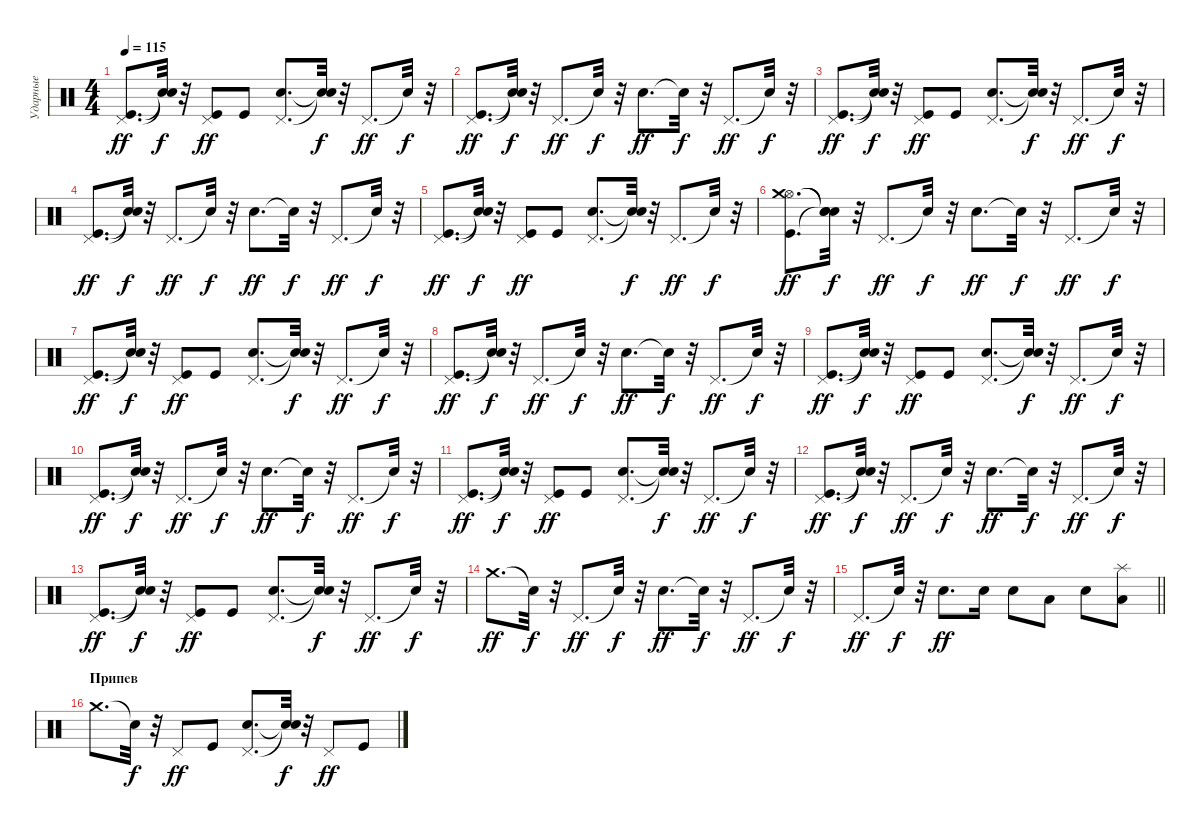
\track ("Ударные" "Ударные") {instrument percussion}
\staff {score}
\articulation defaults
\ts (4 4)
\tempo 115
\clef neutral
\ks c
("Kick (hit)" "Pedal Hi-Hat (hit)").8{d dy ff} ("Snare (hit)"{t} "Snare (hit)"{t}).32{dy f} r.32 ("Kick (hit)" "Pedal Hi-Hat (hit)").8{dy ff} "Kick (hit)".8 ("Electric Snare (hit)" "Pedal Hi-Hat (hit)").8{d} ("Snare (hit)"{t} "Snare (hit)"{t}).32{dy f} r.32 "Pedal Hi-Hat (hit)".8{d dy ff} "Snare (hit)"{t}.32{dy f} r.32 |
("Kick (hit)" "Pedal Hi-Hat (hit)").8{d dy ff} ("Snare (hit)"{t} "Snare (hit)"{t}).32{dy f} r.32 "Pedal Hi-Hat (hit)".8{d dy ff} "Snare (hit)"{t}.32{dy f} r.32 "Electric Snare (hit)".8{d dy ff} "Snare (hit)"{t}.32{dy f} r.32 "Pedal Hi-Hat (hit)".8{d dy ff} "Snare (hit)"{t}.32{dy f} r.32 |
("Kick (hit)" "Pedal Hi-Hat (hit)").8{d dy ff} ("Snare (hit)"{t} "Snare (hit)"{t}).32{dy f} r.32 ("Kick (hit)" "Pedal Hi-Hat (hit)").8{dy ff} "Kick (hit)".8 ("Electric Snare (hit)" "Pedal Hi-Hat (hit)").8{d} ("Snare (hit)"{t} "Snare (hit)"{t}).32{dy f} r.32 "Pedal Hi-Hat (hit)".8{d dy ff} "Snare (hit)"{t}.32{dy f} r.32 |
("Kick (hit)" "Pedal Hi-Hat (hit)").8{d dy ff} ("Snare (hit)"{t} "Snare (hit)"{t}).32{dy f} r.32 "Pedal Hi-Hat (hit)".8{d dy ff} "Snare (hit)"{t}.32{dy f} r.32 "Electric Snare (hit)".8{d dy ff} "Snare (hit)"{t}.32{dy f} r.32 "Pedal Hi-Hat (hit)".8{d dy ff} "Snare (hit)"{t}.32{dy f} r.32 |
("Kick (hit)" "Pedal Hi-Hat (hit)").8{d dy ff} ("Snare (hit)"{t} "Snare (hit)"{t}).32{dy f} r.32 ("Kick (hit)" "Pedal Hi-Hat (hit)").8{dy ff} "Kick (hit)".8 ("Electric Snare (hit)" "Pedal Hi-Hat (hit)").8{d} ("Snare (hit)"{t} "Snare (hit)"{t}).32{dy f} r.32 "Pedal Hi-Hat (hit)".8{d dy ff} "Snare (hit)"{t}.32{dy f} r.32 |
("Kick (hit)" "Hi-Hat (open)" "Crash medium (hit)").8{d dy ff} ("Snare (hit)"{t} "Snare (hit)"{t} "Snare (hit)"{t}).32{dy f} r.32 "Pedal Hi-Hat (hit)".8{d dy ff} "Snare (hit)"{t}.32{dy f} r.32 "Electric Snare (hit)".8{d dy ff} "Snare (hit)"{t}.32{dy f} r.32 "Pedal Hi-Hat (hit)".8{d dy ff} "Snare (hit)"{t}.32{dy f} r.32 |
("Kick (hit)" "Pedal Hi-Hat (hit)").8{d dy ff} ("Snare (hit)"{t} "Snare (hit)"{t}).32{dy f} r.32 ("Kick (hit)" "Pedal Hi-Hat (hit)").8{dy ff} "Kick (hit)".8 ("Electric Snare (hit)" "Pedal Hi-Hat (hit)").8{d} ("Snare (hit)"{t} "Snare (hit)"{t}).32{dy f} r.32 "Pedal Hi-Hat (hit)".8{d dy ff} "Snare (hit)"{t}.32{dy f} r.32 |
("Kick (hit)" "Pedal Hi-Hat (hit)").8{d dy ff} ("Snare (hit)"{t} "Snare (hit)"{t}).32{dy f} r.32 "Pedal Hi-Hat (hit)".8{d dy ff} "Snare (hit)"{t}.32{dy f} r.32 "Electric Snare (hit)".8{d dy ff} "Snare (hit)"{t}.32{dy f} r.32 "Pedal Hi-Hat (hit)".8{d dy ff} "Snare (hit)"{t}.32{dy f} r.32 |
("Kick (hit)" "Pedal Hi-Hat (hit)").8{d dy ff} ("Snare (hit)"{t} "Snare (hit)"{t}).32{dy f} r.32 ("Kick (hit)" "Pedal Hi-Hat (hit)").8{dy ff} "Kick (hit)".8 ("Electric Snare (hit)" "Pedal Hi-Hat (hit)").8{d} ("Snare (hit)"{t} "Snare (hit)"{t}).32{dy f} r.32 "Pedal Hi-Hat (hit)".8{d dy ff} "Snare (hit)"{t}.32{dy f} r.32 |
("Kick (hit)" "Pedal Hi-Hat (hit)").8{d dy ff} ("Snare (hit)"{t} "Snare (hit)"{t}).32{dy f} r.32 "Pedal Hi-Hat (hit)".8{d dy ff} "Snare (hit)"{t}.32{dy f} r.32 "Electric Snare (hit)".8{d dy ff} "Snare (hit)"{t}.32{dy f} r.32 "Pedal Hi-Hat (hit)".8{d dy ff} "Snare (hit)"{t}.32{dy f} r.32 |
("Kick (hit)" "Pedal Hi-Hat (hit)").8{d dy ff} ("Snare (hit)"{t} "Snare (hit)"{t}).32{dy f} r.32 ("Kick (hit)" "Pedal Hi-Hat (hit)").8{dy ff} "Kick (hit)".8 ("Electric Snare (hit)" "Pedal Hi-Hat (hit)").8{d} ("Snare (hit)"{t} "Snare (hit)"{t}).32{dy f} r.32 "Pedal Hi-Hat (hit)".8{d dy ff} "Snare (hit)"{t}.32{dy f} r.32 |
("Kick (hit)" "Pedal Hi-Hat (hit)").8{d dy ff} ("Snare (hit)"{t} "Snare (hit)"{t}).32{dy f} r.32 "Pedal Hi-Hat (hit)".8{d dy ff} "Snare (hit)"{t}.32{dy f} r.32 "Electric Snare (hit)".8{d dy ff} "Snare (hit)"{t}.32{dy f} r.32 "Pedal Hi-Hat (hit)".8{d dy ff} "Snare (hit)"{t}.32{dy f} r.32 |
("Kick (hit)" "Pedal Hi-Hat (hit)").8{d dy ff} ("Snare (hit)"{t} "Snare (hit)"{t}).32{dy f} r.32 ("Kick (hit)" "Pedal Hi-Hat (hit)").8{dy ff} "Kick (hit)".8 ("Electric Snare (hit)" "Pedal Hi-Hat (hit)").8{d} ("Snare (hit)"{t} "Snare (hit)"{t}).32{dy f} r.32 "Pedal Hi-Hat (hit)".8{d dy ff} "Snare (hit)"{t}.32{dy f} r.32 |
"Crash medium (hit)".8{d dy ff} "Snare (hit)"{t}.32{dy f} r.32 "Pedal Hi-Hat (hit)".8{d dy ff} "Snare (hit)"{t}.32{dy f} r.32 "Electric Snare (hit)".8{d dy ff} "Snare (hit)"{t}.32{dy f} r.32 "Pedal Hi-Hat (hit)".8{d dy ff} "Snare (hit)"{t}.32{dy f} r.32 |
\barLineRight lightlight "Pedal Hi-Hat (hit)".8{d dy ff} "Snare (hit)"{t}.32{dy f}
r.32 "Electric Snare (hit)".8{d dy ff} "Electric Snare (hit)".16 "Electric Snare (hit)".8 "Low Floor Tom (hit)".8 "Electric Snare (hit)".8 ("Low Floor Tom (hit)" "Splash (hit)").8 |
\section ("" "Припев")
"Crash medium (hit)".8{d} "Snare (hit)"{t}.32{dy f} r.32 "Pedal Hi-Hat (hit)".8{dy ff} "Kick (hit)".8 ("Electric Snare (hit)" "Pedal Hi-Hat (hit)").8{d} ("Snare (hit)"{t} "Snare (hit)"{t}).32{dy f} r.32 "Pedal Hi-Hat (hit)".8{dy ff} "Kick (hit)".8
